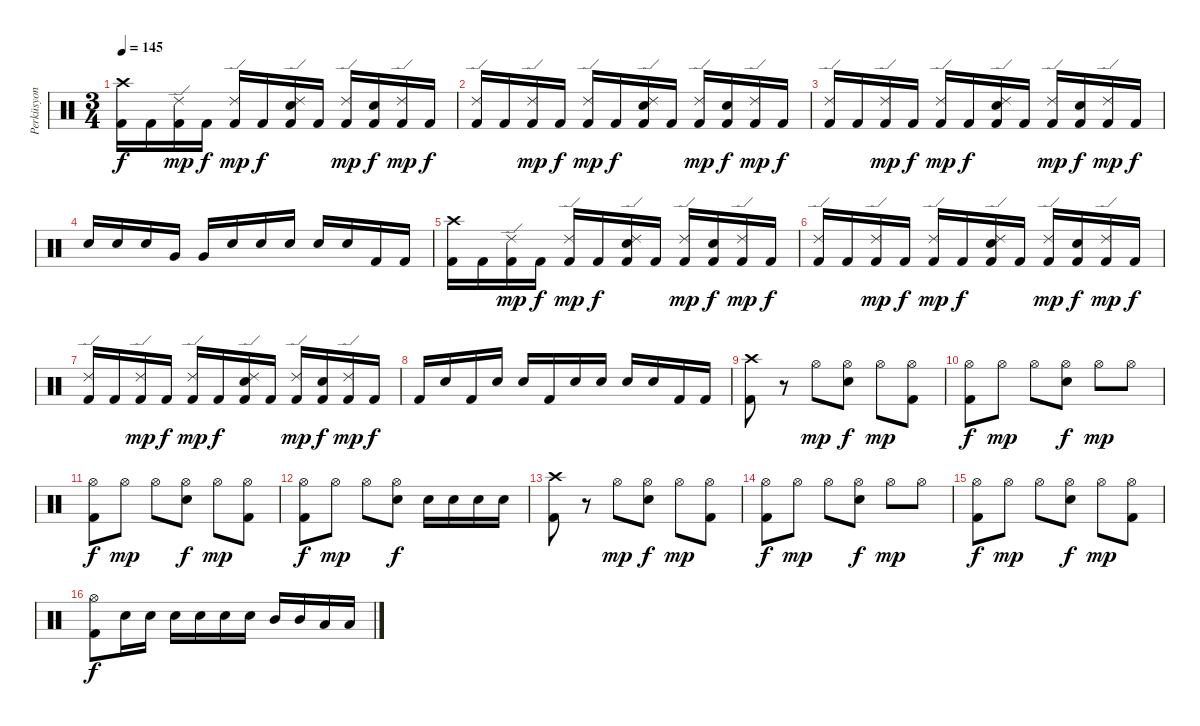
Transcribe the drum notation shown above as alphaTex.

\track ("Perküsyon" "Perküsyon") {instrument percussion}
\staff {score}
\articulation defaults
\ts (3 4)
\tempo 145
\clef neutral
\ks c
("Crash high (hit)" "Kick (hit) 2").16{dy f} "Kick (hit) 2".16 ("Ride (edge) 2" "Kick (hit) 2").16{dy mp} "Kick (hit) 2".16{dy f} ("Ride (edge) 2" "Kick (hit) 2").16{dy mp} "Kick (hit) 2".16{dy f} ("Ride (edge) 2" "Snare (hit) 2" "Kick (hit) 2").16 "Kick (hit) 2".16 ("Ride (edge) 2" "Kick (hit) 2").16{dy mp} ("Snare (hit) 2" "Kick (hit) 2").16{dy f} ("Ride (edge) 2" "Kick (hit) 2").16{dy mp} "Kick (hit) 2".16{dy f} |
("Ride (edge) 2" "Kick (hit) 2").16 "Kick (hit) 2".16 ("Ride (edge) 2" "Kick (hit) 2").16{dy mp} "Kick (hit) 2".16{dy f} ("Ride (edge) 2" "Kick (hit) 2").16{dy mp} "Kick (hit) 2".16{dy f} ("Ride (edge) 2" "Snare (hit) 2" "Kick (hit) 2").16 "Kick (hit) 2".16 ("Ride (edge) 2" "Kick (hit) 2").16{dy mp} ("Snare (hit) 2" "Kick (hit) 2").16{dy f} ("Ride (edge) 2" "Kick (hit) 2").16{dy mp} "Kick (hit) 2".16{dy f} |
("Ride (edge) 2" "Kick (hit) 2").16 "Kick (hit) 2".16 ("Ride (edge) 2" "Kick (hit) 2").16{dy mp} "Kick (hit) 2".16{dy f} ("Ride (edge) 2" "Kick (hit) 2").16{dy mp} "Kick (hit) 2".16{dy f} ("Ride (edge) 2" "Snare (hit) 2" "Kick (hit) 2").16 "Kick (hit) 2".16 ("Ride (edge) 2" "Kick (hit) 2").16{dy mp} ("Snare (hit) 2" "Kick (hit) 2").16{dy f} ("Ride (edge) 2" "Kick (hit) 2").16{dy mp} "Kick (hit) 2".16{dy f} |
"Snare (hit) 2".16 "Snare (hit) 2".16 "Snare (hit) 2".16 "Very Low Tom (hit)".16 "Very Low Tom (hit)".16 "Snare (hit) 2".16 "Snare (hit) 2".16 "Snare (hit) 2".16 "Snare (hit) 2".16 "Snare (hit) 2".16 "Kick (hit) 2".16 "Kick (hit) 2".16 |
("Crash high (hit)" "Kick (hit) 2").16 "Kick (hit) 2".16 ("Ride (edge) 2" "Kick (hit) 2").16{dy mp} "Kick (hit) 2".16{dy f} ("Ride (edge) 2" "Kick (hit) 2").16{dy mp} "Kick (hit) 2".16{dy f} ("Ride (edge) 2" "Snare (hit) 2" "Kick (hit) 2").16 "Kick (hit) 2".16 ("Ride (edge) 2" "Kick (hit) 2").16{dy mp} ("Snare (hit) 2" "Kick (hit) 2").16{dy f} ("Ride (edge) 2" "Kick (hit) 2").16{dy mp} "Kick (hit) 2".16{dy f} |
("Ride (edge) 2" "Kick (hit) 2").16 "Kick (hit) 2".16 ("Ride (edge) 2" "Kick (hit) 2").16{dy mp} "Kick (hit) 2".16{dy f} ("Ride (edge) 2" "Kick (hit) 2").16{dy mp} "Kick (hit) 2".16{dy f} ("Ride (edge) 2" "Snare (hit) 2" "Kick (hit) 2").16 "Kick (hit) 2".16 ("Ride (edge) 2" "Kick (hit) 2").16{dy mp} ("Snare (hit) 2" "Kick (hit) 2").16{dy f} ("Ride (edge) 2" "Kick (hit) 2").16{dy mp} "Kick (hit) 2".16{dy f} |
("Ride (edge) 2" "Kick (hit) 2").16 "Kick (hit) 2".16 ("Ride (edge) 2" "Kick (hit) 2").16{dy mp} "Kick (hit) 2".16{dy f} ("Ride (edge) 2" "Kick (hit) 2").16{dy mp} "Kick (hit) 2".16{dy f} ("Ride (edge) 2" "Snare (hit) 2" "Kick (hit) 2").16 "Kick (hit) 2".16 ("Ride (edge) 2" "Kick (hit) 2").16{dy mp} ("Snare (hit) 2" "Kick (hit) 2").16{dy f} ("Ride (edge) 2" "Kick (hit) 2").16{dy mp} "Kick (hit) 2".16{dy f} |
"Kick (hit) 2".16 "Snare (hit) 2".16 "Kick (hit) 2".16 "Snare (hit) 2".16 "Snare (hit) 2".16 "Kick (hit) 2".16 "Snare (hit) 2".16 "Snare (hit) 2".16 "Snare (hit) 2".16 "Snare (hit) 2".16 "Kick (hit) 2".16 "Kick (hit) 2".16 |
("Crash high (hit)" "Kick (hit) 2").8 r.8 "Hi-Hat (open)".8{dy mp} ("Snare (hit) 2" "Hi-Hat (open)").8{dy f} "Hi-Hat (open)".8{dy mp} ("Hi-Hat (open)" "Kick (hit) 2").8 |
("Hi-Hat (open)" "Kick (hit) 2").8{dy f} "Hi-Hat (open)".8{dy mp} "Hi-Hat (open)".8 ("Snare (hit) 2" "Hi-Hat (open)").8{dy f} "Hi-Hat (open)".8{dy mp} "Hi-Hat (open)".8 |
("Hi-Hat (open)" "Kick (hit) 2").8{dy f} "Hi-Hat (open)".8{dy mp} "Hi-Hat (open)".8 ("Snare (hit) 2" "Hi-Hat (open)").8{dy f} "Hi-Hat (open)".8{dy mp} ("Hi-Hat (open)" "Kick (hit) 2").8 |
("Hi-Hat (open)" "Kick (hit) 2").8{dy f} "Hi-Hat (open)".8{dy mp} "Hi-Hat (open)".8 ("Snare (hit) 2" "Hi-Hat (open)").8{dy f} "Snare (hit) 2".16 "Snare (hit) 2".16 "Snare (hit) 2".16 "Snare (hit) 2".16 |
("Crash high (hit)" "Kick (hit) 2").8 r.8 "Hi-Hat (open)".8{dy mp} ("Snare (hit) 2" "Hi-Hat (open)").8{dy f} "Hi-Hat (open)".8{dy mp} ("Hi-Hat (open)" "Kick (hit) 2").8 |
("Hi-Hat (open)" "Kick (hit) 2").8{dy f} "Hi-Hat (open)".8{dy mp} "Hi-Hat (open)".8 ("Snare (hit) 2" "Hi-Hat (open)").8{dy f} "Hi-Hat (open)".8{dy mp} "Hi-Hat (open)".8 |
("Hi-Hat (open)" "Kick (hit) 2").8{dy f} "Hi-Hat (open)".8{dy mp} "Hi-Hat (open)".8 ("Snare (hit) 2" "Hi-Hat (open)").8{dy f} "Hi-Hat (open)".8{dy mp} ("Hi-Hat (open)" "Kick (hit) 2").8 |
("Hi-Hat (open)" "Kick (hit) 2").8{dy f} "Snare (hit) 2".16 "Snare (hit) 2".16 "Snare (hit) 2".16 "Snare (hit) 2".16 "Snare (hit) 2".16 "Snare (hit) 2".16 "Mid Tom (hit)".16 "Mid Tom (hit)".16 "Low Tom (hit)".16 "Low Tom (hit)".16
